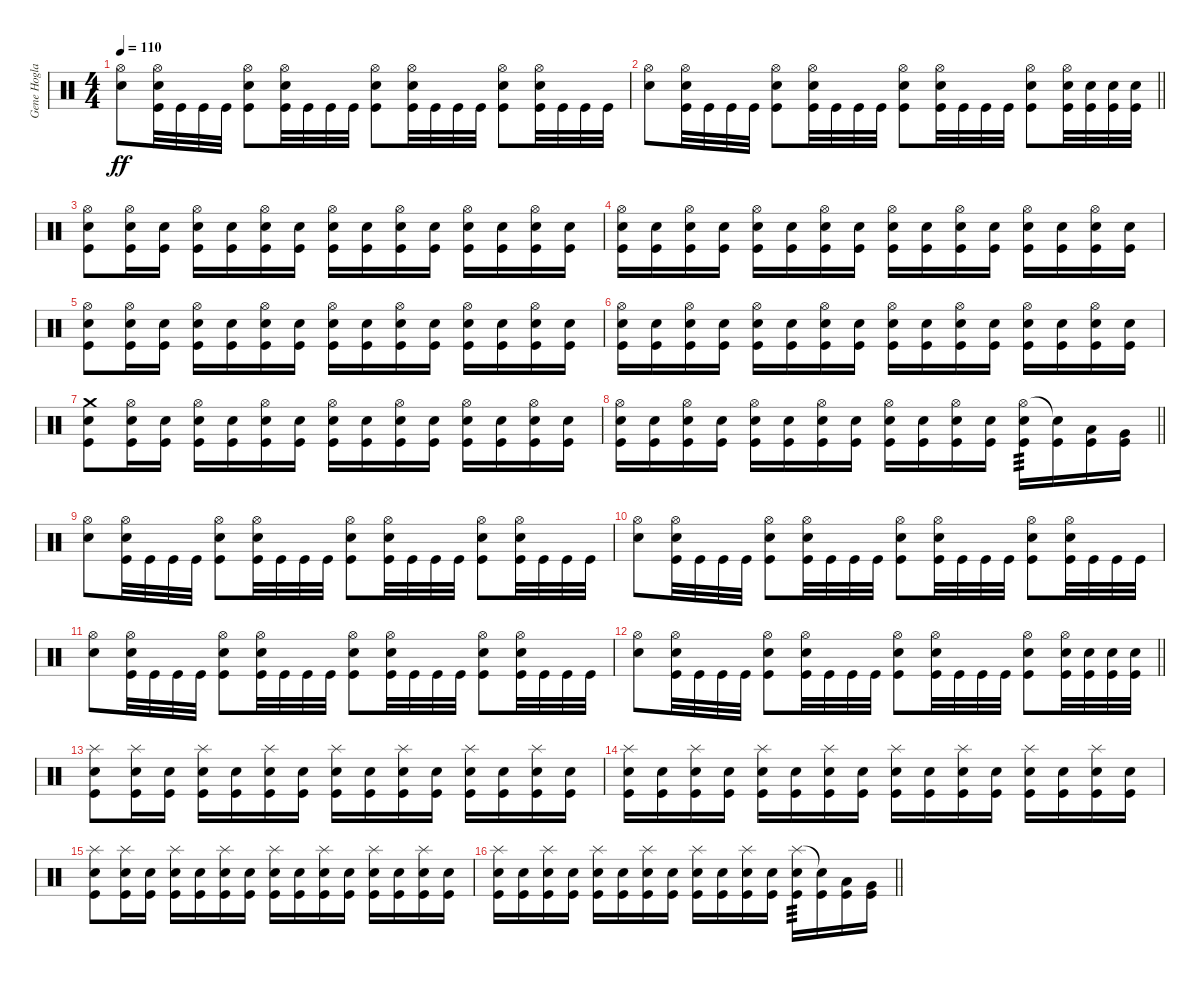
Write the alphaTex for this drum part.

\track ("Gene Hoglan" "Gene Hogla") {instrument percussion}
\staff {score}
\articulation defaults
\ts (4 4)
\section ("" "")
\tempo 110
\clef neutral
\ks c
("Hi-Hat (open)" "Electric Snare (hit)").8{dy ff} ("Hi-Hat (open)" "Electric Snare (hit)" "Kick (hit)").32 "Kick (hit)".32 "Kick (hit)".32 "Kick (hit)".32 ("Hi-Hat (open)" "Electric Snare (hit)" "Kick (hit)").8 ("Hi-Hat (open)" "Electric Snare (hit)" "Kick (hit)").32 "Kick (hit)".32 "Kick (hit)".32 "Kick (hit)".32 ("Hi-Hat (open)" "Electric Snare (hit)" "Kick (hit)").8 ("Hi-Hat (open)" "Electric Snare (hit)" "Kick (hit)").32 "Kick (hit)".32 "Kick (hit)".32 "Kick (hit)".32 ("Hi-Hat (open)" "Electric Snare (hit)" "Kick (hit)").8 ("Hi-Hat (open)" "Electric Snare (hit)" "Kick (hit)").32 "Kick (hit)".32 "Kick (hit)".32 "Kick (hit)".32 |
\barLineRight lightlight
("Hi-Hat (open)" "Electric Snare (hit)").8 ("Hi-Hat (open)" "Electric Snare (hit)" "Kick (hit)").32 "Kick (hit)".32 "Kick (hit)".32 "Kick (hit)".32 ("Hi-Hat (open)" "Electric Snare (hit)" "Kick (hit)").8 ("Hi-Hat (open)" "Electric Snare (hit)" "Kick (hit)").32 "Kick (hit)".32 "Kick (hit)".32 "Kick (hit)".32 ("Hi-Hat (open)" "Electric Snare (hit)" "Kick (hit)").8 ("Hi-Hat (open)" "Electric Snare (hit)" "Kick (hit)").32 "Kick (hit)".32 "Kick (hit)".32 "Kick (hit)".32 ("Hi-Hat (open)" "Electric Snare (hit)" "Kick (hit)").8 ("Hi-Hat (open)" "Electric Snare (hit)" "Kick (hit)").32 ("Electric Snare (hit)" "Kick (hit)").32 ("Electric Snare (hit)" "Kick (hit)").32 ("Electric Snare (hit)" "Kick (hit)").32 |
\section ("" "")
("Hi-Hat (open)" "Electric Snare (hit)" "Kick (hit)").8 ("Hi-Hat (open)" "Electric Snare (hit)" "Kick (hit)").16 ("Electric Snare (hit)" "Kick (hit)").16 ("Hi-Hat (open)" "Electric Snare (hit)" "Kick (hit)").16 ("Electric Snare (hit)" "Kick (hit)").16 ("Hi-Hat (open)" "Electric Snare (hit)" "Kick (hit)").16 ("Electric Snare (hit)" "Kick (hit)").16 ("Hi-Hat (open)" "Electric Snare (hit)" "Kick (hit)").16 ("Electric Snare (hit)" "Kick (hit)").16 ("Hi-Hat (open)" "Electric Snare (hit)" "Kick (hit)").16 ("Electric Snare (hit)" "Kick (hit)").16 ("Hi-Hat (open)" "Electric Snare (hit)" "Kick (hit)").16 ("Electric Snare (hit)" "Kick (hit)").16 ("Hi-Hat (open)" "Electric Snare (hit)" "Kick (hit)").16 ("Electric Snare (hit)" "Kick (hit)").16 |
("Hi-Hat (open)" "Electric Snare (hit)" "Kick (hit)").16 ("Electric Snare (hit)" "Kick (hit)").16 ("Hi-Hat (open)" "Electric Snare (hit)" "Kick (hit)").16 ("Electric Snare (hit)" "Kick (hit)").16 ("Hi-Hat (open)" "Electric Snare (hit)" "Kick (hit)").16 ("Electric Snare (hit)" "Kick (hit)").16 ("Hi-Hat (open)" "Electric Snare (hit)" "Kick (hit)").16 ("Electric Snare (hit)" "Kick (hit)").16 ("Hi-Hat (open)" "Electric Snare (hit)" "Kick (hit)").16 ("Electric Snare (hit)" "Kick (hit)").16 ("Hi-Hat (open)" "Electric Snare (hit)" "Kick (hit)").16 ("Electric Snare (hit)" "Kick (hit)").16 ("Hi-Hat (open)" "Electric Snare (hit)" "Kick (hit)").16 ("Electric Snare (hit)" "Kick (hit)").16 ("Hi-Hat (open)" "Electric Snare (hit)" "Kick (hit)").16 ("Electric Snare (hit)" "Kick (hit)").16 |
("Hi-Hat (open)" "Electric Snare (hit)" "Kick (hit)").8 ("Hi-Hat (open)" "Electric Snare (hit)" "Kick (hit)").16 ("Electric Snare (hit)" "Kick (hit)").16 ("Hi-Hat (open)" "Electric Snare (hit)" "Kick (hit)").16 ("Electric Snare (hit)" "Kick (hit)").16 ("Hi-Hat (open)" "Electric Snare (hit)" "Kick (hit)").16 ("Electric Snare (hit)" "Kick (hit)").16 ("Hi-Hat (open)" "Electric Snare (hit)" "Kick (hit)").16 ("Electric Snare (hit)" "Kick (hit)").16 ("Hi-Hat (open)" "Electric Snare (hit)" "Kick (hit)").16 ("Electric Snare (hit)" "Kick (hit)").16 ("Hi-Hat (open)" "Electric Snare (hit)" "Kick (hit)").16 ("Electric Snare (hit)" "Kick (hit)").16 ("Hi-Hat (open)" "Electric Snare (hit)" "Kick (hit)").16 ("Electric Snare (hit)" "Kick (hit)").16 |
("Hi-Hat (open)" "Electric Snare (hit)" "Kick (hit)").16 ("Electric Snare (hit)" "Kick (hit)").16 ("Hi-Hat (open)" "Electric Snare (hit)" "Kick (hit)").16 ("Electric Snare (hit)" "Kick (hit)").16 ("Hi-Hat (open)" "Electric Snare (hit)" "Kick (hit)").16 ("Electric Snare (hit)" "Kick (hit)").16 ("Hi-Hat (open)" "Electric Snare (hit)" "Kick (hit)").16 ("Electric Snare (hit)" "Kick (hit)").16 ("Hi-Hat (open)" "Electric Snare (hit)" "Kick (hit)").16 ("Electric Snare (hit)" "Kick (hit)").16 ("Hi-Hat (open)" "Electric Snare (hit)" "Kick (hit)").16 ("Electric Snare (hit)" "Kick (hit)").16 ("Hi-Hat (open)" "Electric Snare (hit)" "Kick (hit)").16 ("Electric Snare (hit)" "Kick (hit)").16 ("Hi-Hat (open)" "Electric Snare (hit)" "Kick (hit)").16 ("Electric Snare (hit)" "Kick (hit)").16 |
("Crash medium (hit)" "Electric Snare (hit)" "Kick (hit)").8 ("Hi-Hat (open)" "Electric Snare (hit)" "Kick (hit)").16 ("Electric Snare (hit)" "Kick (hit)").16 ("Hi-Hat (open)" "Electric Snare (hit)" "Kick (hit)").16 ("Electric Snare (hit)" "Kick (hit)").16 ("Hi-Hat (open)" "Electric Snare (hit)" "Kick (hit)").16 ("Electric Snare (hit)" "Kick (hit)").16 ("Hi-Hat (open)" "Electric Snare (hit)" "Kick (hit)").16 ("Electric Snare (hit)" "Kick (hit)").16 ("Hi-Hat (open)" "Electric Snare (hit)" "Kick (hit)").16 ("Electric Snare (hit)" "Kick (hit)").16 ("Hi-Hat (open)" "Electric Snare (hit)" "Kick (hit)").16 ("Electric Snare (hit)" "Kick (hit)").16 ("Hi-Hat (open)" "Electric Snare (hit)" "Kick (hit)").16 ("Electric Snare (hit)" "Kick (hit)").16 |
\barLineRight lightlight
("Hi-Hat (open)" "Electric Snare (hit)" "Kick (hit)").16 ("Electric Snare (hit)" "Kick (hit)").16 ("Hi-Hat (open)" "Electric Snare (hit)" "Kick (hit)").16 ("Electric Snare (hit)" "Kick (hit)").16 ("Hi-Hat (open)" "Electric Snare (hit)" "Kick (hit)").16 ("Electric Snare (hit)" "Kick (hit)").16 ("Hi-Hat (open)" "Electric Snare (hit)" "Kick (hit)").16 ("Electric Snare (hit)" "Kick (hit)").16 ("Hi-Hat (open)" "Electric Snare (hit)" "Kick (hit)").16 ("Electric Snare (hit)" "Kick (hit)").16 ("Hi-Hat (open)" "Electric Snare (hit)" "Kick (hit)").16 ("Electric Snare (hit)" "Kick (hit)").16 ("Hi-Hat (open)" "Electric Snare (hit)" "Kick (hit)").16{tp 3} ("Electric Snare (hit)"{t} "Kick (hit)").16 ("Low Tom (hit)" "Kick (hit)").16 ("Very Low Tom (hit)" "Kick (hit)").16 |
\section ("" "")
("Hi-Hat (open)" "Electric Snare (hit)").8 ("Hi-Hat (open)" "Electric Snare (hit)" "Kick (hit)").32 "Kick (hit)".32 "Kick (hit)".32 "Kick (hit)".32 ("Hi-Hat (open)" "Electric Snare (hit)" "Kick (hit)").8 ("Hi-Hat (open)" "Electric Snare (hit)" "Kick (hit)").32 "Kick (hit)".32 "Kick (hit)".32 "Kick (hit)".32 ("Hi-Hat (open)" "Electric Snare (hit)" "Kick (hit)").8 ("Hi-Hat (open)" "Electric Snare (hit)" "Kick (hit)").32 "Kick (hit)".32 "Kick (hit)".32 "Kick (hit)".32 ("Hi-Hat (open)" "Electric Snare (hit)" "Kick (hit)").8 ("Hi-Hat (open)" "Electric Snare (hit)" "Kick (hit)").32 "Kick (hit)".32 "Kick (hit)".32 "Kick (hit)".32 |
("Hi-Hat (open)" "Electric Snare (hit)").8 ("Hi-Hat (open)" "Electric Snare (hit)" "Kick (hit)").32 "Kick (hit)".32 "Kick (hit)".32 "Kick (hit)".32 ("Hi-Hat (open)" "Electric Snare (hit)" "Kick (hit)").8 ("Hi-Hat (open)" "Electric Snare (hit)" "Kick (hit)").32 "Kick (hit)".32 "Kick (hit)".32 "Kick (hit)".32 ("Hi-Hat (open)" "Electric Snare (hit)" "Kick (hit)").8 ("Hi-Hat (open)" "Electric Snare (hit)" "Kick (hit)").32 "Kick (hit)".32 "Kick (hit)".32 "Kick (hit)".32 ("Hi-Hat (open)" "Electric Snare (hit)" "Kick (hit)").8 ("Hi-Hat (open)" "Electric Snare (hit)" "Kick (hit)").32 "Kick (hit)".32 "Kick (hit)".32 "Kick (hit)".32 |
("Hi-Hat (open)" "Electric Snare (hit)").8 ("Hi-Hat (open)" "Electric Snare (hit)" "Kick (hit)").32 "Kick (hit)".32 "Kick (hit)".32 "Kick (hit)".32 ("Hi-Hat (open)" "Electric Snare (hit)" "Kick (hit)").8 ("Hi-Hat (open)" "Electric Snare (hit)" "Kick (hit)").32 "Kick (hit)".32 "Kick (hit)".32 "Kick (hit)".32 ("Hi-Hat (open)" "Electric Snare (hit)" "Kick (hit)").8 ("Hi-Hat (open)" "Electric Snare (hit)" "Kick (hit)").32 "Kick (hit)".32 "Kick (hit)".32 "Kick (hit)".32 ("Hi-Hat (open)" "Electric Snare (hit)" "Kick (hit)").8 ("Hi-Hat (open)" "Electric Snare (hit)" "Kick (hit)").32 "Kick (hit)".32 "Kick (hit)".32 "Kick (hit)".32 |
\barLineRight lightlight
("Hi-Hat (open)" "Electric Snare (hit)").8 ("Hi-Hat (open)" "Electric Snare (hit)" "Kick (hit)").32 "Kick (hit)".32 "Kick (hit)".32 "Kick (hit)".32 ("Hi-Hat (open)" "Electric Snare (hit)" "Kick (hit)").8 ("Hi-Hat (open)" "Electric Snare (hit)" "Kick (hit)").32 "Kick (hit)".32 "Kick (hit)".32 "Kick (hit)".32 ("Hi-Hat (open)" "Electric Snare (hit)" "Kick (hit)").8 ("Hi-Hat (open)" "Electric Snare (hit)" "Kick (hit)").32 "Kick (hit)".32 "Kick (hit)".32 "Kick (hit)".32 ("Hi-Hat (open)" "Electric Snare (hit)" "Kick (hit)").8 ("Hi-Hat (open)" "Electric Snare (hit)" "Kick (hit)").32 ("Electric Snare (hit)" "Kick (hit)").32 ("Electric Snare (hit)" "Kick (hit)").32 ("Electric Snare (hit)" "Kick (hit)").32 |
\section ("" "")
("Splash (hit)" "Electric Snare (hit)" "Kick (hit)").8 ("Splash (hit)" "Electric Snare (hit)" "Kick (hit)").16 ("Electric Snare (hit)" "Kick (hit)").16 ("Splash (hit)" "Electric Snare (hit)" "Kick (hit)").16 ("Electric Snare (hit)" "Kick (hit)").16 ("Splash (hit)" "Electric Snare (hit)" "Kick (hit)").16 ("Electric Snare (hit)" "Kick (hit)").16 ("Splash (hit)" "Electric Snare (hit)" "Kick (hit)").16 ("Electric Snare (hit)" "Kick (hit)").16 ("Splash (hit)" "Electric Snare (hit)" "Kick (hit)").16 ("Electric Snare (hit)" "Kick (hit)").16 ("Splash (hit)" "Electric Snare (hit)" "Kick (hit)").16 ("Electric Snare (hit)" "Kick (hit)").16 ("Splash (hit)" "Electric Snare (hit)" "Kick (hit)").16 ("Electric Snare (hit)" "Kick (hit)").16 |
("Splash (hit)" "Electric Snare (hit)" "Kick (hit)").16 ("Electric Snare (hit)" "Kick (hit)").16 ("Splash (hit)" "Electric Snare (hit)" "Kick (hit)").16 ("Electric Snare (hit)" "Kick (hit)").16 ("Splash (hit)" "Electric Snare (hit)" "Kick (hit)").16 ("Electric Snare (hit)" "Kick (hit)").16 ("Splash (hit)" "Electric Snare (hit)" "Kick (hit)").16 ("Electric Snare (hit)" "Kick (hit)").16 ("Splash (hit)" "Electric Snare (hit)" "Kick (hit)").16 ("Electric Snare (hit)" "Kick (hit)").16 ("Splash (hit)" "Electric Snare (hit)" "Kick (hit)").16 ("Electric Snare (hit)" "Kick (hit)").16 ("Splash (hit)" "Electric Snare (hit)" "Kick (hit)").16 ("Electric Snare (hit)" "Kick (hit)").16 ("Splash (hit)" "Electric Snare (hit)" "Kick (hit)").16 ("Electric Snare (hit)" "Kick (hit)").16 |
("Splash (hit)" "Electric Snare (hit)" "Kick (hit)").8 ("Splash (hit)" "Electric Snare (hit)" "Kick (hit)").16 ("Electric Snare (hit)" "Kick (hit)").16 ("Splash (hit)" "Electric Snare (hit)" "Kick (hit)").16 ("Electric Snare (hit)" "Kick (hit)").16 ("Splash (hit)" "Electric Snare (hit)" "Kick (hit)").16 ("Electric Snare (hit)" "Kick (hit)").16 ("Splash (hit)" "Electric Snare (hit)" "Kick (hit)").16 ("Electric Snare (hit)" "Kick (hit)").16 ("Splash (hit)" "Electric Snare (hit)" "Kick (hit)").16 ("Electric Snare (hit)" "Kick (hit)").16 ("Splash (hit)" "Electric Snare (hit)" "Kick (hit)").16 ("Electric Snare (hit)" "Kick (hit)").16 ("Splash (hit)" "Electric Snare (hit)" "Kick (hit)").16 ("Electric Snare (hit)" "Kick (hit)").16 |
\barLineRight lightlight
("Splash (hit)" "Electric Snare (hit)" "Kick (hit)").16 ("Electric Snare (hit)" "Kick (hit)").16 ("Splash (hit)" "Electric Snare (hit)" "Kick (hit)").16 ("Electric Snare (hit)" "Kick (hit)").16 ("Splash (hit)" "Electric Snare (hit)" "Kick (hit)").16 ("Electric Snare (hit)" "Kick (hit)").16 ("Splash (hit)" "Electric Snare (hit)" "Kick (hit)").16 ("Electric Snare (hit)" "Kick (hit)").16 ("Splash (hit)" "Electric Snare (hit)" "Kick (hit)").16 ("Electric Snare (hit)" "Kick (hit)").16 ("Splash (hit)" "Electric Snare (hit)" "Kick (hit)").16 ("Electric Snare (hit)" "Kick (hit)").16 ("Splash (hit)" "Electric Snare (hit)" "Kick (hit)").16{tp 3} ("Electric Snare (hit)"{t} "Kick (hit)").16 ("Low Tom (hit)" "Kick (hit)").16 ("Very Low Tom (hit)" "Kick (hit)").16
